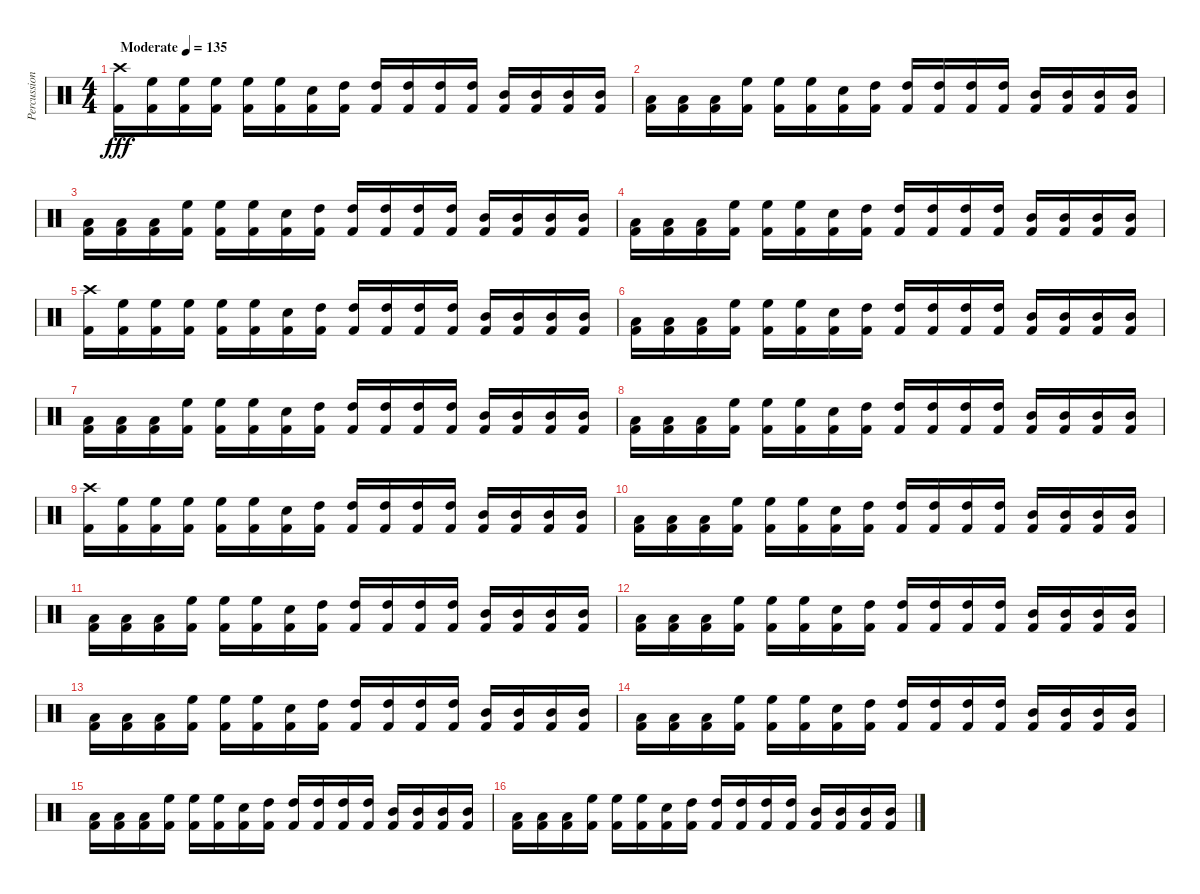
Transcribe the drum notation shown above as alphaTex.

\track ("Percussion" "Percussion") {instrument percussion}
\staff {score}
\articulation defaults
\ts (4 4)
\tempo (135 "Moderate")
\clef neutral
\ks c
("Crash high (hit)" "Kick (hit) 2").16{dy fff} ("High Floor Tom (hit)" "Kick (hit) 2").16 ("High Floor Tom (hit)" "Kick (hit) 2").16 ("High Floor Tom (hit)" "Kick (hit) 2").16 ("High Floor Tom (hit)" "Kick (hit) 2").16 ("High Floor Tom (hit)" "Kick (hit) 2").16 ("Snare (hit) 2" "Kick (hit) 2").16 ("High Tom (hit)" "Kick (hit) 2").16 ("High Tom (hit)" "Kick (hit) 2").16 ("High Tom (hit)" "Kick (hit) 2").16 ("High Tom (hit)" "Kick (hit) 2").16 ("High Tom (hit)" "Kick (hit) 2").16 ("Mid Tom (hit)" "Kick (hit) 2").16 ("Mid Tom (hit)" "Kick (hit) 2").16 ("Mid Tom (hit)" "Kick (hit) 2").16 ("Mid Tom (hit)" "Kick (hit) 2").16 |
("Low Tom (hit)" "Kick (hit) 2").16 ("Low Tom (hit)" "Kick (hit) 2").16 ("Low Tom (hit)" "Kick (hit) 2").16 ("High Floor Tom (hit)" "Kick (hit) 2").16 ("High Floor Tom (hit)" "Kick (hit) 2").16 ("High Floor Tom (hit)" "Kick (hit) 2").16 ("Snare (hit) 2" "Kick (hit) 2").16 ("High Tom (hit)" "Kick (hit) 2").16 ("High Tom (hit)" "Kick (hit) 2").16 ("High Tom (hit)" "Kick (hit) 2").16 ("High Tom (hit)" "Kick (hit) 2").16 ("High Tom (hit)" "Kick (hit) 2").16 ("Mid Tom (hit)" "Kick (hit) 2").16 ("Mid Tom (hit)" "Kick (hit) 2").16 ("Mid Tom (hit)" "Kick (hit) 2").16 ("Mid Tom (hit)" "Kick (hit) 2").16 |
("Low Tom (hit)" "Kick (hit) 2").16 ("Low Tom (hit)" "Kick (hit) 2").16 ("Low Tom (hit)" "Kick (hit) 2").16 ("High Floor Tom (hit)" "Kick (hit) 2").16 ("High Floor Tom (hit)" "Kick (hit) 2").16 ("High Floor Tom (hit)" "Kick (hit) 2").16 ("Snare (hit) 2" "Kick (hit) 2").16 ("High Tom (hit)" "Kick (hit) 2").16 ("High Tom (hit)" "Kick (hit) 2").16 ("High Tom (hit)" "Kick (hit) 2").16 ("High Tom (hit)" "Kick (hit) 2").16 ("High Tom (hit)" "Kick (hit) 2").16 ("Mid Tom (hit)" "Kick (hit) 2").16 ("Mid Tom (hit)" "Kick (hit) 2").16 ("Mid Tom (hit)" "Kick (hit) 2").16 ("Mid Tom (hit)" "Kick (hit) 2").16 |
("Low Tom (hit)" "Kick (hit) 2").16 ("Low Tom (hit)" "Kick (hit) 2").16 ("Low Tom (hit)" "Kick (hit) 2").16 ("High Floor Tom (hit)" "Kick (hit) 2").16 ("High Floor Tom (hit)" "Kick (hit) 2").16 ("High Floor Tom (hit)" "Kick (hit) 2").16 ("Snare (hit) 2" "Kick (hit) 2").16 ("High Tom (hit)" "Kick (hit) 2").16 ("High Tom (hit)" "Kick (hit) 2").16 ("High Tom (hit)" "Kick (hit) 2").16 ("High Tom (hit)" "Kick (hit) 2").16 ("High Tom (hit)" "Kick (hit) 2").16 ("Mid Tom (hit)" "Kick (hit) 2").16 ("Mid Tom (hit)" "Kick (hit) 2").16 ("Mid Tom (hit)" "Kick (hit) 2").16 ("Mid Tom (hit)" "Kick (hit) 2").16 |
("Crash high (hit)" "Kick (hit) 2").16 ("High Floor Tom (hit)" "Kick (hit) 2").16 ("High Floor Tom (hit)" "Kick (hit) 2").16 ("High Floor Tom (hit)" "Kick (hit) 2").16 ("High Floor Tom (hit)" "Kick (hit) 2").16 ("High Floor Tom (hit)" "Kick (hit) 2").16 ("Snare (hit) 2" "Kick (hit) 2").16 ("High Tom (hit)" "Kick (hit) 2").16 ("High Tom (hit)" "Kick (hit) 2").16 ("High Tom (hit)" "Kick (hit) 2").16 ("High Tom (hit)" "Kick (hit) 2").16 ("High Tom (hit)" "Kick (hit) 2").16 ("Mid Tom (hit)" "Kick (hit) 2").16 ("Mid Tom (hit)" "Kick (hit) 2").16 ("Mid Tom (hit)" "Kick (hit) 2").16 ("Mid Tom (hit)" "Kick (hit) 2").16 |
("Low Tom (hit)" "Kick (hit) 2").16 ("Low Tom (hit)" "Kick (hit) 2").16 ("Low Tom (hit)" "Kick (hit) 2").16 ("High Floor Tom (hit)" "Kick (hit) 2").16 ("High Floor Tom (hit)" "Kick (hit) 2").16 ("High Floor Tom (hit)" "Kick (hit) 2").16 ("Snare (hit) 2" "Kick (hit) 2").16 ("High Tom (hit)" "Kick (hit) 2").16 ("High Tom (hit)" "Kick (hit) 2").16 ("High Tom (hit)" "Kick (hit) 2").16 ("High Tom (hit)" "Kick (hit) 2").16 ("High Tom (hit)" "Kick (hit) 2").16 ("Mid Tom (hit)" "Kick (hit) 2").16 ("Mid Tom (hit)" "Kick (hit) 2").16 ("Mid Tom (hit)" "Kick (hit) 2").16 ("Mid Tom (hit)" "Kick (hit) 2").16 |
("Low Tom (hit)" "Kick (hit) 2").16 ("Low Tom (hit)" "Kick (hit) 2").16 ("Low Tom (hit)" "Kick (hit) 2").16 ("High Floor Tom (hit)" "Kick (hit) 2").16 ("High Floor Tom (hit)" "Kick (hit) 2").16 ("High Floor Tom (hit)" "Kick (hit) 2").16 ("Snare (hit) 2" "Kick (hit) 2").16 ("High Tom (hit)" "Kick (hit) 2").16 ("High Tom (hit)" "Kick (hit) 2").16 ("High Tom (hit)" "Kick (hit) 2").16 ("High Tom (hit)" "Kick (hit) 2").16 ("High Tom (hit)" "Kick (hit) 2").16 ("Mid Tom (hit)" "Kick (hit) 2").16 ("Mid Tom (hit)" "Kick (hit) 2").16 ("Mid Tom (hit)" "Kick (hit) 2").16 ("Mid Tom (hit)" "Kick (hit) 2").16 |
("Low Tom (hit)" "Kick (hit) 2").16 ("Low Tom (hit)" "Kick (hit) 2").16 ("Low Tom (hit)" "Kick (hit) 2").16 ("High Floor Tom (hit)" "Kick (hit) 2").16 ("High Floor Tom (hit)" "Kick (hit) 2").16 ("High Floor Tom (hit)" "Kick (hit) 2").16 ("Snare (hit) 2" "Kick (hit) 2").16 ("High Tom (hit)" "Kick (hit) 2").16 ("High Tom (hit)" "Kick (hit) 2").16 ("High Tom (hit)" "Kick (hit) 2").16 ("High Tom (hit)" "Kick (hit) 2").16 ("High Tom (hit)" "Kick (hit) 2").16 ("Mid Tom (hit)" "Kick (hit) 2").16 ("Mid Tom (hit)" "Kick (hit) 2").16 ("Mid Tom (hit)" "Kick (hit) 2").16 ("Mid Tom (hit)" "Kick (hit) 2").16 |
("Crash high (hit)" "Kick (hit) 2").16 ("High Floor Tom (hit)" "Kick (hit) 2").16 ("High Floor Tom (hit)" "Kick (hit) 2").16 ("High Floor Tom (hit)" "Kick (hit) 2").16 ("High Floor Tom (hit)" "Kick (hit) 2").16 ("High Floor Tom (hit)" "Kick (hit) 2").16 ("Snare (hit) 2" "Kick (hit) 2").16 ("High Tom (hit)" "Kick (hit) 2").16 ("High Tom (hit)" "Kick (hit) 2").16 ("High Tom (hit)" "Kick (hit) 2").16 ("High Tom (hit)" "Kick (hit) 2").16 ("High Tom (hit)" "Kick (hit) 2").16 ("Mid Tom (hit)" "Kick (hit) 2").16 ("Mid Tom (hit)" "Kick (hit) 2").16 ("Mid Tom (hit)" "Kick (hit) 2").16 ("Mid Tom (hit)" "Kick (hit) 2").16 |
("Low Tom (hit)" "Kick (hit) 2").16 ("Low Tom (hit)" "Kick (hit) 2").16 ("Low Tom (hit)" "Kick (hit) 2").16 ("High Floor Tom (hit)" "Kick (hit) 2").16 ("High Floor Tom (hit)" "Kick (hit) 2").16 ("High Floor Tom (hit)" "Kick (hit) 2").16 ("Snare (hit) 2" "Kick (hit) 2").16 ("High Tom (hit)" "Kick (hit) 2").16 ("High Tom (hit)" "Kick (hit) 2").16 ("High Tom (hit)" "Kick (hit) 2").16 ("High Tom (hit)" "Kick (hit) 2").16 ("High Tom (hit)" "Kick (hit) 2").16 ("Mid Tom (hit)" "Kick (hit) 2").16 ("Mid Tom (hit)" "Kick (hit) 2").16 ("Mid Tom (hit)" "Kick (hit) 2").16 ("Mid Tom (hit)" "Kick (hit) 2").16 |
("Low Tom (hit)" "Kick (hit) 2").16 ("Low Tom (hit)" "Kick (hit) 2").16 ("Low Tom (hit)" "Kick (hit) 2").16 ("High Floor Tom (hit)" "Kick (hit) 2").16 ("High Floor Tom (hit)" "Kick (hit) 2").16 ("High Floor Tom (hit)" "Kick (hit) 2").16 ("Snare (hit) 2" "Kick (hit) 2").16 ("High Tom (hit)" "Kick (hit) 2").16 ("High Tom (hit)" "Kick (hit) 2").16 ("High Tom (hit)" "Kick (hit) 2").16 ("High Tom (hit)" "Kick (hit) 2").16 ("High Tom (hit)" "Kick (hit) 2").16 ("Mid Tom (hit)" "Kick (hit) 2").16 ("Mid Tom (hit)" "Kick (hit) 2").16 ("Mid Tom (hit)" "Kick (hit) 2").16 ("Mid Tom (hit)" "Kick (hit) 2").16 |
("Low Tom (hit)" "Kick (hit) 2").16 ("Low Tom (hit)" "Kick (hit) 2").16 ("Low Tom (hit)" "Kick (hit) 2").16 ("High Floor Tom (hit)" "Kick (hit) 2").16 ("High Floor Tom (hit)" "Kick (hit) 2").16 ("High Floor Tom (hit)" "Kick (hit) 2").16 ("Snare (hit) 2" "Kick (hit) 2").16 ("High Tom (hit)" "Kick (hit) 2").16 ("High Tom (hit)" "Kick (hit) 2").16 ("High Tom (hit)" "Kick (hit) 2").16 ("High Tom (hit)" "Kick (hit) 2").16 ("High Tom (hit)" "Kick (hit) 2").16 ("Mid Tom (hit)" "Kick (hit) 2").16 ("Mid Tom (hit)" "Kick (hit) 2").16 ("Mid Tom (hit)" "Kick (hit) 2").16 ("Mid Tom (hit)" "Kick (hit) 2").16 |
("Low Tom (hit)" "Kick (hit) 2").16 ("Low Tom (hit)" "Kick (hit) 2").16 ("Low Tom (hit)" "Kick (hit) 2").16 ("High Floor Tom (hit)" "Kick (hit) 2").16 ("High Floor Tom (hit)" "Kick (hit) 2").16 ("High Floor Tom (hit)" "Kick (hit) 2").16 ("Snare (hit) 2" "Kick (hit) 2").16 ("High Tom (hit)" "Kick (hit) 2").16 ("High Tom (hit)" "Kick (hit) 2").16 ("High Tom (hit)" "Kick (hit) 2").16 ("High Tom (hit)" "Kick (hit) 2").16 ("High Tom (hit)" "Kick (hit) 2").16 ("Mid Tom (hit)" "Kick (hit) 2").16 ("Mid Tom (hit)" "Kick (hit) 2").16 ("Mid Tom (hit)" "Kick (hit) 2").16 ("Mid Tom (hit)" "Kick (hit) 2").16 |
("Low Tom (hit)" "Kick (hit) 2").16 ("Low Tom (hit)" "Kick (hit) 2").16 ("Low Tom (hit)" "Kick (hit) 2").16 ("High Floor Tom (hit)" "Kick (hit) 2").16 ("High Floor Tom (hit)" "Kick (hit) 2").16 ("High Floor Tom (hit)" "Kick (hit) 2").16 ("Snare (hit) 2" "Kick (hit) 2").16 ("High Tom (hit)" "Kick (hit) 2").16 ("High Tom (hit)" "Kick (hit) 2").16 ("High Tom (hit)" "Kick (hit) 2").16 ("High Tom (hit)" "Kick (hit) 2").16 ("High Tom (hit)" "Kick (hit) 2").16 ("Mid Tom (hit)" "Kick (hit) 2").16 ("Mid Tom (hit)" "Kick (hit) 2").16 ("Mid Tom (hit)" "Kick (hit) 2").16 ("Mid Tom (hit)" "Kick (hit) 2").16 |
("Low Tom (hit)" "Kick (hit) 2").16 ("Low Tom (hit)" "Kick (hit) 2").16 ("Low Tom (hit)" "Kick (hit) 2").16 ("High Floor Tom (hit)" "Kick (hit) 2").16 ("High Floor Tom (hit)" "Kick (hit) 2").16 ("High Floor Tom (hit)" "Kick (hit) 2").16 ("Snare (hit) 2" "Kick (hit) 2").16 ("High Tom (hit)" "Kick (hit) 2").16 ("High Tom (hit)" "Kick (hit) 2").16 ("High Tom (hit)" "Kick (hit) 2").16 ("High Tom (hit)" "Kick (hit) 2").16 ("High Tom (hit)" "Kick (hit) 2").16 ("Mid Tom (hit)" "Kick (hit) 2").16 ("Mid Tom (hit)" "Kick (hit) 2").16 ("Mid Tom (hit)" "Kick (hit) 2").16 ("Mid Tom (hit)" "Kick (hit) 2").16 |
("Low Tom (hit)" "Kick (hit) 2").16 ("Low Tom (hit)" "Kick (hit) 2").16 ("Low Tom (hit)" "Kick (hit) 2").16 ("High Floor Tom (hit)" "Kick (hit) 2").16 ("High Floor Tom (hit)" "Kick (hit) 2").16 ("High Floor Tom (hit)" "Kick (hit) 2").16 ("Snare (hit) 2" "Kick (hit) 2").16 ("High Tom (hit)" "Kick (hit) 2").16 ("High Tom (hit)" "Kick (hit) 2").16 ("High Tom (hit)" "Kick (hit) 2").16 ("High Tom (hit)" "Kick (hit) 2").16 ("High Tom (hit)" "Kick (hit) 2").16 ("Mid Tom (hit)" "Kick (hit) 2").16 ("Mid Tom (hit)" "Kick (hit) 2").16 ("Mid Tom (hit)" "Kick (hit) 2").16 ("Mid Tom (hit)" "Kick (hit) 2").16
